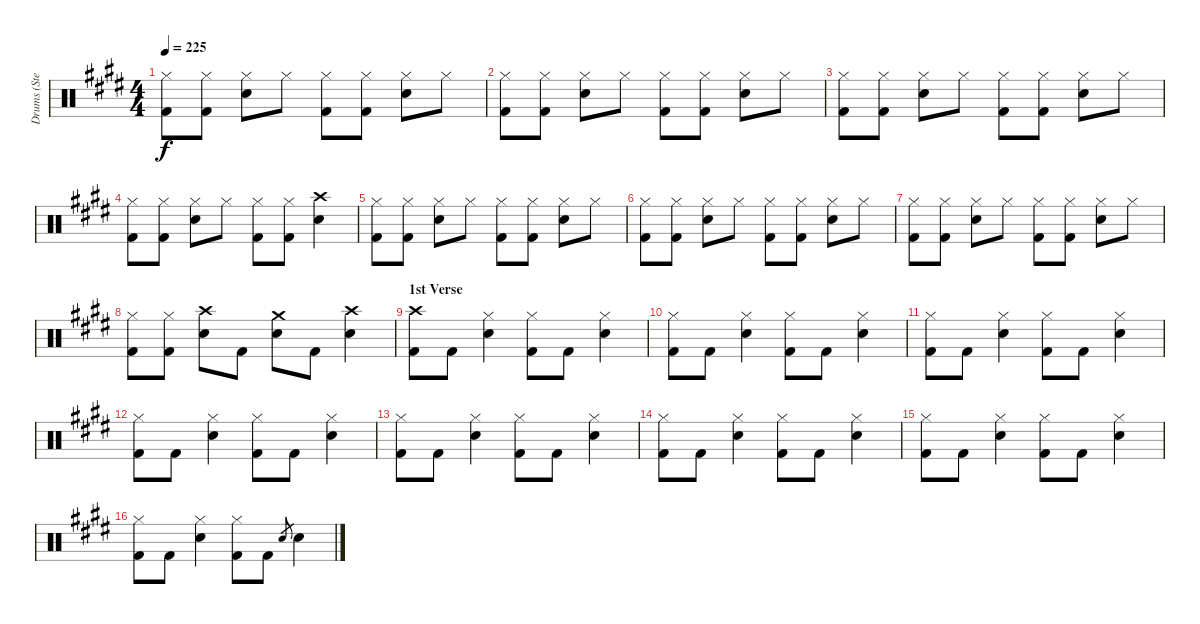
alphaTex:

\track ("Drums (Steven)" "Drums (Ste") {instrument percussion}
\staff {score}
\articulation defaults
\ts (4 4)
\tempo 225
\clef neutral
\ks e
("Hi-Hat (closed)" "Kick (hit) 2").8{dy f} ("Hi-Hat (closed)" "Kick (hit) 2").8 ("Hi-Hat (closed)" "Snare (hit) 2").8 "Hi-Hat (closed)".8 ("Hi-Hat (closed)" "Kick (hit) 2").8 ("Hi-Hat (closed)" "Kick (hit) 2").8 ("Hi-Hat (closed)" "Snare (hit) 2").8 "Hi-Hat (closed)".8 |
("Hi-Hat (closed)" "Kick (hit) 2").8 ("Hi-Hat (closed)" "Kick (hit) 2").8 ("Hi-Hat (closed)" "Snare (hit) 2").8 "Hi-Hat (closed)".8 ("Hi-Hat (closed)" "Kick (hit) 2").8 ("Hi-Hat (closed)" "Kick (hit) 2").8 ("Hi-Hat (closed)" "Snare (hit) 2").8 "Hi-Hat (closed)".8 |
("Hi-Hat (closed)" "Kick (hit) 2").8 ("Hi-Hat (closed)" "Kick (hit) 2").8 ("Hi-Hat (closed)" "Snare (hit) 2").8 "Hi-Hat (closed)".8 ("Hi-Hat (closed)" "Kick (hit) 2").8 ("Hi-Hat (closed)" "Kick (hit) 2").8 ("Hi-Hat (closed)" "Snare (hit) 2").8 "Hi-Hat (closed)".8 |
("Hi-Hat (closed)" "Kick (hit) 2").8 ("Hi-Hat (closed)" "Kick (hit) 2").8 ("Hi-Hat (closed)" "Snare (hit) 2").8 "Hi-Hat (closed)".8 ("Hi-Hat (closed)" "Kick (hit) 2").8 ("Hi-Hat (closed)" "Kick (hit) 2").8 ("Crash high (hit)" "Snare (hit) 2").4 |
("Hi-Hat (closed)" "Kick (hit) 2").8 ("Hi-Hat (closed)" "Kick (hit) 2").8 ("Hi-Hat (closed)" "Snare (hit) 2").8 "Hi-Hat (closed)".8 ("Hi-Hat (closed)" "Kick (hit) 2").8 ("Hi-Hat (closed)" "Kick (hit) 2").8 ("Hi-Hat (closed)" "Snare (hit) 2").8 "Hi-Hat (closed)".8 |
("Hi-Hat (closed)" "Kick (hit) 2").8 ("Hi-Hat (closed)" "Kick (hit) 2").8 ("Hi-Hat (closed)" "Snare (hit) 2").8 "Hi-Hat (closed)".8 ("Hi-Hat (closed)" "Kick (hit) 2").8 ("Hi-Hat (closed)" "Kick (hit) 2").8 ("Hi-Hat (closed)" "Snare (hit) 2").8 "Hi-Hat (closed)".8 |
("Hi-Hat (closed)" "Kick (hit) 2").8 ("Hi-Hat (closed)" "Kick (hit) 2").8 ("Hi-Hat (closed)" "Snare (hit) 2").8 "Hi-Hat (closed)".8 ("Hi-Hat (closed)" "Kick (hit) 2").8 ("Hi-Hat (closed)" "Kick (hit) 2").8 ("Hi-Hat (closed)" "Snare (hit) 2").8 "Hi-Hat (closed)".8 |
("Hi-Hat (closed)" "Kick (hit) 2").8 ("Hi-Hat (closed)" "Kick (hit) 2").8 ("Crash high (hit)" "Snare (hit) 2").8 "Kick (hit) 2".8 ("Crash medium (hit)" "Snare (hit) 2").8 "Kick (hit) 2".8 ("Crash high (hit)" "Snare (hit) 2").4 |
\section ("" "1st Verse")
("Crash high (hit)" "Kick (hit) 2").8 "Kick (hit) 2".8 ("Hi-Hat (closed)" "Snare (hit) 2").4 ("Hi-Hat (closed)" "Kick (hit) 2").8 "Kick (hit) 2".8 ("Hi-Hat (closed)" "Snare (hit) 2").4 |
("Hi-Hat (closed)" "Kick (hit) 2").8 "Kick (hit) 2".8 ("Hi-Hat (closed)" "Snare (hit) 2").4 ("Hi-Hat (closed)" "Kick (hit) 2").8 "Kick (hit) 2".8 ("Hi-Hat (closed)" "Snare (hit) 2").4 |
("Hi-Hat (closed)" "Kick (hit) 2").8 "Kick (hit) 2".8 ("Hi-Hat (closed)" "Snare (hit) 2").4 ("Hi-Hat (closed)" "Kick (hit) 2").8 "Kick (hit) 2".8 ("Hi-Hat (closed)" "Snare (hit) 2").4 |
("Hi-Hat (closed)" "Kick (hit) 2").8 "Kick (hit) 2".8 ("Hi-Hat (closed)" "Snare (hit) 2").4 ("Hi-Hat (closed)" "Kick (hit) 2").8 "Kick (hit) 2".8 ("Hi-Hat (closed)" "Snare (hit) 2").4 |
("Hi-Hat (closed)" "Kick (hit) 2").8 "Kick (hit) 2".8 ("Hi-Hat (closed)" "Snare (hit) 2").4 ("Hi-Hat (closed)" "Kick (hit) 2").8 "Kick (hit) 2".8 ("Hi-Hat (closed)" "Snare (hit) 2").4 |
("Hi-Hat (closed)" "Kick (hit) 2").8 "Kick (hit) 2".8 ("Hi-Hat (closed)" "Snare (hit) 2").4 ("Hi-Hat (closed)" "Kick (hit) 2").8 "Kick (hit) 2".8 ("Hi-Hat (closed)" "Snare (hit) 2").4 |
("Hi-Hat (closed)" "Kick (hit) 2").8 "Kick (hit) 2".8 ("Hi-Hat (closed)" "Snare (hit) 2").4 ("Hi-Hat (closed)" "Kick (hit) 2").8 "Kick (hit) 2".8 ("Hi-Hat (closed)" "Snare (hit) 2").4 |
("Hi-Hat (closed)" "Kick (hit) 2").8 "Kick (hit) 2".8 ("Hi-Hat (closed)" "Snare (hit) 2").4 ("Hi-Hat (closed)" "Kick (hit) 2").8 "Kick (hit) 2".8 "Snare (hit) 2".8{gr} "Snare (hit) 2".4
